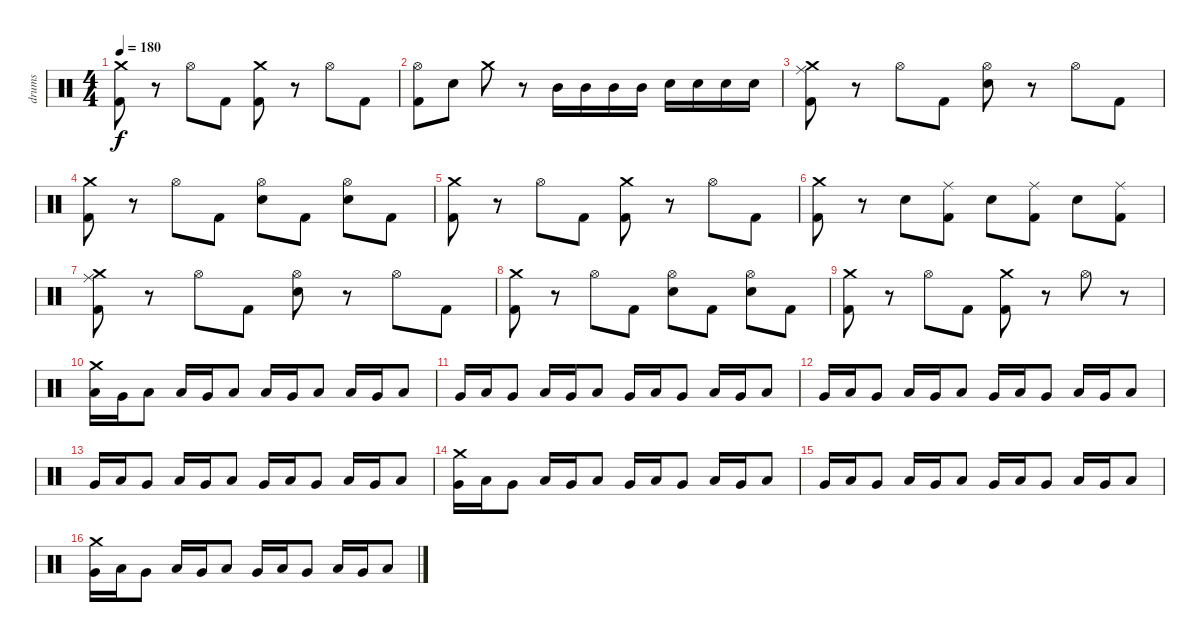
\track ("drums" "drums") {instrument percussion}
\staff {score}
\articulation defaults
\ts (4 4)
\tempo 180
\clef neutral
\ks c
("Crash medium (hit)" "Kick (hit) 2").8{dy f} r.8 "Hi-Hat (open)".8 "Kick (hit) 2".8 ("Crash medium (hit)" "Kick (hit) 2").8 r.8 "Hi-Hat (open)".8 "Kick (hit) 2".8 |
("Hi-Hat (open)" "Kick (hit) 2").8 "Snare (hit) 2".8 "Crash medium (hit)".8 r.8 "Mid Tom (hit)".16 "Mid Tom (hit)".16 "Mid Tom (hit)".16 "Mid Tom (hit)".16 "Snare (hit) 2".16 "Snare (hit) 2".16 "Snare (hit) 2".16 "Snare (hit) 2".16 |
("Crash medium (hit)" "Ride (middle)" "Kick (hit) 2").8 r.8 "Hi-Hat (open)".8 "Kick (hit) 2".8 ("Hi-Hat (open)" "Snare (hit) 2").8 r.8 "Hi-Hat (open)".8 "Kick (hit) 2".8 |
("Crash medium (hit)" "Kick (hit) 2").8 r.8 "Hi-Hat (open)".8 "Kick (hit) 2".8 ("Hi-Hat (open)" "Snare (hit) 2").8 "Kick (hit) 2".8 ("Hi-Hat (open)" "Snare (hit) 2").8 "Kick (hit) 2".8 |
("Crash medium (hit)" "Kick (hit) 2").8 r.8 "Hi-Hat (open)".8 "Kick (hit) 2".8 ("Crash medium (hit)" "Kick (hit) 2").8 r.8 "Hi-Hat (open)".8 "Kick (hit) 2".8 |
("Crash medium (hit)" "Kick (hit) 2").8 r.8 "Snare (hit) 2".8 ("Ride (middle)" "Kick (hit) 2").8 "Snare (hit) 2".8 ("Ride (middle)" "Kick (hit) 2").8 "Snare (hit) 2".8 ("Ride (middle)" "Kick (hit) 2").8 |
("Crash medium (hit)" "Ride (middle)" "Kick (hit) 2").8 r.8 "Hi-Hat (open)".8 "Kick (hit) 2".8 ("Hi-Hat (open)" "Snare (hit) 2").8 r.8 "Hi-Hat (open)".8 "Kick (hit) 2".8 |
("Crash medium (hit)" "Kick (hit) 2").8 r.8 "Hi-Hat (open)".8 "Kick (hit) 2".8 ("Hi-Hat (open)" "Snare (hit) 2").8 "Kick (hit) 2".8 ("Hi-Hat (open)" "Snare (hit) 2").8 "Kick (hit) 2".8 |
("Crash medium (hit)" "Kick (hit) 2").8 r.8 "Hi-Hat (open)".8 "Kick (hit) 2".8 ("Crash medium (hit)" "Kick (hit) 2").8 r.8 "Hi-Hat (open)".8 r.8 |
("Crash medium (hit)" "Low Floor Tom (hit)").16 "Very Low Tom (hit)".16 "Low Floor Tom (hit)".8 "Low Floor Tom (hit)".16 "Very Low Tom (hit)".16 "Low Floor Tom (hit)".8 "Low Floor Tom (hit)".16 "Very Low Tom (hit)".16 "Low Floor Tom (hit)".8 "Low Floor Tom (hit)".16 "Very Low Tom (hit)".16 "Low Floor Tom (hit)".8 |
"Very Low Tom (hit)".16 "Low Tom (hit)".16 "Very Low Tom (hit)".8 "Low Floor Tom (hit)".16 "Very Low Tom (hit)".16 "Low Floor Tom (hit)".8 "Very Low Tom (hit)".16 "Low Tom (hit)".16 "Very Low Tom (hit)".8 "Low Floor Tom (hit)".16 "Very Low Tom (hit)".16 "Low Floor Tom (hit)".8 |
"Very Low Tom (hit)".16 "Low Tom (hit)".16 "Very Low Tom (hit)".8 "Low Floor Tom (hit)".16 "Very Low Tom (hit)".16 "Low Floor Tom (hit)".8 "Very Low Tom (hit)".16 "Low Tom (hit)".16 "Very Low Tom (hit)".8 "Low Floor Tom (hit)".16 "Very Low Tom (hit)".16 "Low Floor Tom (hit)".8 |
"Very Low Tom (hit)".16 "Low Tom (hit)".16 "Very Low Tom (hit)".8 "Low Floor Tom (hit)".16 "Very Low Tom (hit)".16 "Low Floor Tom (hit)".8 "Very Low Tom (hit)".16 "Low Tom (hit)".16 "Very Low Tom (hit)".8 "Low Floor Tom (hit)".16 "Very Low Tom (hit)".16 "Low Floor Tom (hit)".8 |
("Crash medium (hit)" "Very Low Tom (hit)").16 "Low Tom (hit)".16 "Very Low Tom (hit)".8 "Low Floor Tom (hit)".16 "Very Low Tom (hit)".16 "Low Floor Tom (hit)".8 "Very Low Tom (hit)".16 "Low Tom (hit)".16 "Very Low Tom (hit)".8 "Low Floor Tom (hit)".16 "Very Low Tom (hit)".16 "Low Floor Tom (hit)".8 |
"Very Low Tom (hit)".16 "Low Tom (hit)".16 "Very Low Tom (hit)".8 "Low Floor Tom (hit)".16 "Very Low Tom (hit)".16 "Low Floor Tom (hit)".8 "Very Low Tom (hit)".16 "Low Tom (hit)".16 "Very Low Tom (hit)".8 "Low Floor Tom (hit)".16 "Very Low Tom (hit)".16 "Low Floor Tom (hit)".8 |
("Crash medium (hit)" "Very Low Tom (hit)").16 "Low Tom (hit)".16 "Very Low Tom (hit)".8 "Low Floor Tom (hit)".16 "Very Low Tom (hit)".16 "Low Floor Tom (hit)".8 "Very Low Tom (hit)".16 "Low Tom (hit)".16 "Very Low Tom (hit)".8 "Low Floor Tom (hit)".16 "Very Low Tom (hit)".16 "Low Floor Tom (hit)".8
